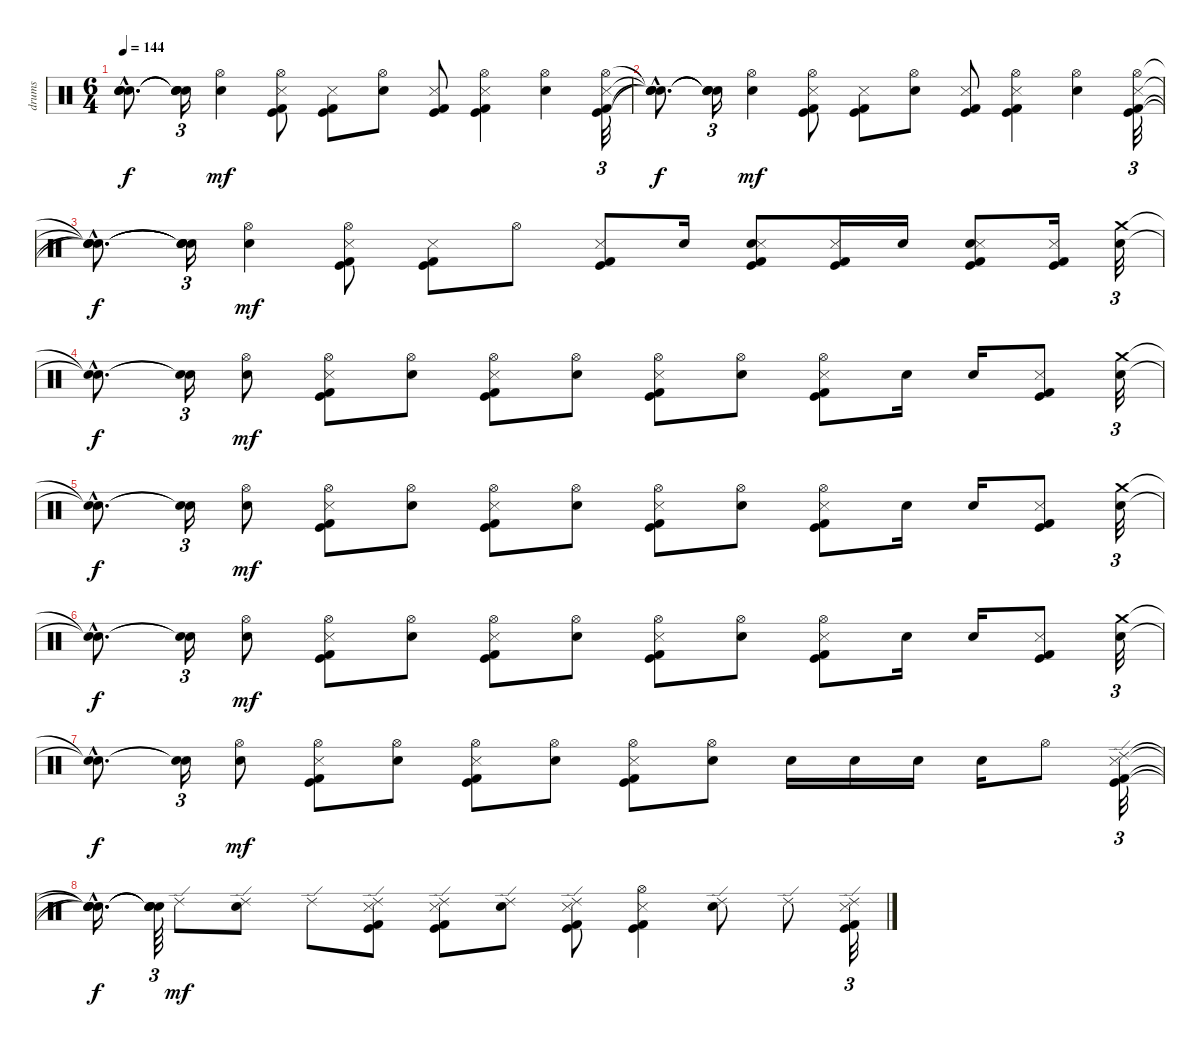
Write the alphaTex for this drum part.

\track ("drums" "drums") {instrument percussion}
\staff {score}
\articulation defaults
\ts (6 4)
\tempo 144
\clef neutral
\ks c
("Snare (hit)"{hac t} "Snare (hit)"{hac t} "Snare (hit)"{hac t} "Snare (hit)"{hac t}).8{d dy f} ("Snare (hit)"{t} "Snare (hit)"{t} "Snare (hit)"{t} "Snare (hit)"{t}).16{tu (3 2)} ("Snare (hit) 2" "Hi-Hat (open)").4{dy mf} ("Hi-Hat (open)" "Metronome (hit)" "Kick (hit)" "Kick (hit) 2").8 ("Metronome (hit)" "Kick (hit)" "Kick (hit) 2").8 ("Snare (hit) 2" "Hi-Hat (open)").8 ("Metronome (hit)" "Kick (hit)" "Kick (hit) 2").8 ("Hi-Hat (open)" "Metronome (hit)" "Kick (hit)" "Kick (hit) 2").4 ("Snare (hit) 2" "Hi-Hat (open)").4 ("Hi-Hat (open)" "Metronome (hit)" "Kick (hit)" "Kick (hit) 2").32{tu (3 2)} |
("Snare (hit)"{hac t} "Snare (hit)"{hac t} "Snare (hit)"{hac t} "Snare (hit)"{hac t}).8{d dy f} ("Snare (hit)"{t} "Snare (hit)"{t} "Snare (hit)"{t} "Snare (hit)"{t}).16{tu (3 2)} ("Snare (hit) 2" "Hi-Hat (open)").4{dy mf} ("Hi-Hat (open)" "Metronome (hit)" "Kick (hit)" "Kick (hit) 2").8 ("Metronome (hit)" "Kick (hit)" "Kick (hit) 2").8 ("Snare (hit) 2" "Hi-Hat (open)").8 ("Metronome (hit)" "Kick (hit)" "Kick (hit) 2").8 ("Hi-Hat (open)" "Metronome (hit)" "Kick (hit)" "Kick (hit) 2").4 ("Snare (hit) 2" "Hi-Hat (open)").4 ("Hi-Hat (open)" "Metronome (hit)" "Kick (hit)" "Kick (hit) 2").32{tu (3 2)} |
("Snare (hit)"{hac t} "Snare (hit)"{hac t} "Snare (hit)"{hac t} "Snare (hit)"{hac t}).8{d dy f} ("Snare (hit)"{t} "Snare (hit)"{t} "Snare (hit)"{t} "Snare (hit)"{t}).16{tu (3 2)} ("Snare (hit) 2" "Hi-Hat (open)").4{dy mf} ("Hi-Hat (open)" "Metronome (hit)" "Kick (hit)" "Kick (hit) 2").8 ("Metronome (hit)" "Kick (hit)" "Kick (hit) 2").8 "Hi-Hat (open)".8 ("Metronome (hit)" "Kick (hit)" "Kick (hit) 2").8 "Snare (hit) 2".16 ("Snare (hit) 2" "Metronome (hit)" "Kick (hit)" "Kick (hit) 2").8 ("Metronome (hit)" "Kick (hit)" "Kick (hit) 2").16 "Snare (hit) 2".16 ("Snare (hit) 2" "Metronome (hit)" "Kick (hit)" "Kick (hit) 2").8 ("Metronome (hit)" "Kick (hit)" "Kick (hit) 2").16 ("Snare (hit) 2" "Crash medium (hit)").32{tu (3 2)} |
("Snare (hit)"{hac t} "Snare (hit)"{hac t}).8{d dy f} ("Snare (hit)"{t} "Snare (hit)"{t}).16{tu (3 2)} ("Snare (hit) 2" "Hi-Hat (open)").8{dy mf} ("Hi-Hat (open)" "Metronome (hit)" "Kick (hit)" "Kick (hit) 2").8 ("Snare (hit) 2" "Hi-Hat (open)").8 ("Hi-Hat (open)" "Metronome (hit)" "Kick (hit)" "Kick (hit) 2").8 ("Snare (hit) 2" "Hi-Hat (open)").8 ("Hi-Hat (open)" "Metronome (hit)" "Kick (hit)" "Kick (hit) 2").8 ("Snare (hit) 2" "Hi-Hat (open)").8 ("Hi-Hat (open)" "Metronome (hit)" "Kick (hit)" "Kick (hit) 2").8 "Snare (hit) 2".16 "Snare (hit) 2".16 ("Metronome (hit)" "Kick (hit)" "Kick (hit) 2").8 ("Snare (hit) 2" "Crash medium (hit)").32{tu (3 2)} |
("Snare (hit)"{hac t} "Snare (hit)"{hac t}).8{d dy f} ("Snare (hit)"{t} "Snare (hit)"{t}).16{tu (3 2)} ("Snare (hit) 2" "Hi-Hat (open)").8{dy mf} ("Hi-Hat (open)" "Metronome (hit)" "Kick (hit)" "Kick (hit) 2").8 ("Snare (hit) 2" "Hi-Hat (open)").8 ("Hi-Hat (open)" "Metronome (hit)" "Kick (hit)" "Kick (hit) 2").8 ("Snare (hit) 2" "Hi-Hat (open)").8 ("Hi-Hat (open)" "Metronome (hit)" "Kick (hit)" "Kick (hit) 2").8 ("Snare (hit) 2" "Hi-Hat (open)").8 ("Hi-Hat (open)" "Metronome (hit)" "Kick (hit)" "Kick (hit) 2").8 "Snare (hit) 2".16 "Snare (hit) 2".16 ("Metronome (hit)" "Kick (hit)" "Kick (hit) 2").8 ("Snare (hit) 2" "Crash medium (hit)").32{tu (3 2)} |
("Snare (hit)"{hac t} "Snare (hit)"{hac t}).8{d dy f} ("Snare (hit)"{t} "Snare (hit)"{t}).16{tu (3 2)} ("Snare (hit) 2" "Hi-Hat (open)").8{dy mf} ("Hi-Hat (open)" "Metronome (hit)" "Kick (hit)" "Kick (hit) 2").8 ("Snare (hit) 2" "Hi-Hat (open)").8 ("Hi-Hat (open)" "Metronome (hit)" "Kick (hit)" "Kick (hit) 2").8 ("Snare (hit) 2" "Hi-Hat (open)").8 ("Hi-Hat (open)" "Metronome (hit)" "Kick (hit)" "Kick (hit) 2").8 ("Snare (hit) 2" "Hi-Hat (open)").8 ("Hi-Hat (open)" "Metronome (hit)" "Kick (hit)" "Kick (hit) 2").8 "Snare (hit) 2".16 "Snare (hit) 2".16 ("Metronome (hit)" "Kick (hit)" "Kick (hit) 2").8 ("Snare (hit) 2" "Crash medium (hit)").32{tu (3 2)} |
("Snare (hit)"{hac t} "Snare (hit)"{hac t}).8{d dy f} ("Snare (hit)"{t} "Snare (hit)"{t}).16{tu (3 2)} ("Snare (hit) 2" "Hi-Hat (open)").8{dy mf} ("Hi-Hat (open)" "Metronome (hit)" "Kick (hit)" "Kick (hit) 2").8 ("Snare (hit) 2" "Hi-Hat (open)").8 ("Hi-Hat (open)" "Metronome (hit)" "Kick (hit)" "Kick (hit) 2").8 ("Snare (hit) 2" "Hi-Hat (open)").8 ("Hi-Hat (open)" "Metronome (hit)" "Kick (hit)" "Kick (hit) 2").8 ("Snare (hit) 2" "Hi-Hat (open)").8 "Snare (hit) 2".16 "Snare (hit) 2".16 "Snare (hit) 2".16 "Snare (hit) 2".16 "Hi-Hat (open)".8 ("Ride (edge) 2" "Metronome (hit)" "Kick (hit)" "Kick (hit) 2").32{tu (3 2)} |
("Snare (hit)"{hac t} "Snare (hit)"{hac t} "Snare (hit)"{hac t} "Snare (hit)"{hac t}).16{d dy f} ("Snare (hit)"{t} "Snare (hit)"{t} "Snare (hit)"{t} "Snare (hit)"{t}).64{tu (3 2)} "Ride (edge) 2".8{dy mf} ("Snare (hit) 2" "Ride (edge) 2").8 "Ride (edge) 2".8 ("Ride (edge) 2" "Metronome (hit)" "Kick (hit)" "Kick (hit) 2").8 ("Ride (edge) 2" "Metronome (hit)" "Kick (hit)" "Kick (hit) 2").8 ("Snare (hit) 2" "Ride (edge) 2").8 ("Ride (edge) 2" "Metronome (hit)" "Kick (hit)" "Kick (hit) 2").8 ("Hi-Hat (open)" "Metronome (hit)" "Kick (hit)" "Kick (hit) 2").4 ("Snare (hit) 2" "Ride (edge) 2").8 "Ride (edge) 2".8 ("Ride (edge) 2" "Metronome (hit)" "Kick (hit)" "Kick (hit) 2").32{tu (3 2)}
